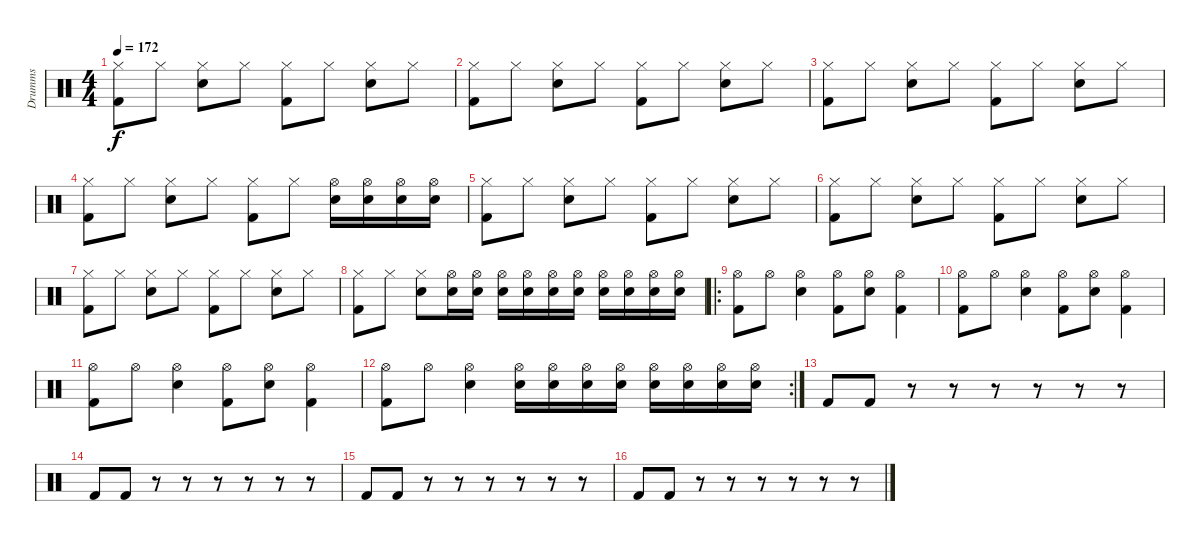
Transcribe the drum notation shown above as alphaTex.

\track ("Drumms" "Drumms") {instrument percussion}
\staff
\articulation defaults
\ts (4 4)
\tempo 172
\clef neutral
\ks c
("Hi-Hat (closed)" "Kick (hit) 2").8{dy f} "Hi-Hat (closed)".8 ("Hi-Hat (closed)" "Electric Snare (hit)").8 "Hi-Hat (closed)".8 ("Hi-Hat (closed)" "Kick (hit) 2").8 "Hi-Hat (closed)".8 ("Hi-Hat (closed)" "Electric Snare (hit)").8 "Hi-Hat (closed)".8 |
("Hi-Hat (closed)" "Kick (hit) 2").8 "Hi-Hat (closed)".8 ("Hi-Hat (closed)" "Electric Snare (hit)").8 "Hi-Hat (closed)".8 ("Hi-Hat (closed)" "Kick (hit) 2").8 "Hi-Hat (closed)".8 ("Hi-Hat (closed)" "Electric Snare (hit)").8 "Hi-Hat (closed)".8 |
("Hi-Hat (closed)" "Kick (hit) 2").8 "Hi-Hat (closed)".8 ("Hi-Hat (closed)" "Electric Snare (hit)").8 "Hi-Hat (closed)".8 ("Hi-Hat (closed)" "Kick (hit) 2").8 "Hi-Hat (closed)".8 ("Hi-Hat (closed)" "Electric Snare (hit)").8 "Hi-Hat (closed)".8 |
("Hi-Hat (closed)" "Kick (hit) 2").8 "Hi-Hat (closed)".8 ("Hi-Hat (closed)" "Electric Snare (hit)").8 "Hi-Hat (closed)".8 ("Hi-Hat (closed)" "Kick (hit) 2").8 "Hi-Hat (closed)".8 ("Snare (hit) 2" "Hi-Hat (open)").16 ("Electric Snare (hit)" "Hi-Hat (open)").16 ("Snare (hit) 2" "Hi-Hat (open)").16 ("Electric Snare (hit)" "Hi-Hat (open)").16 |
("Hi-Hat (closed)" "Kick (hit) 2").8 "Hi-Hat (closed)".8 ("Hi-Hat (closed)" "Electric Snare (hit)").8 "Hi-Hat (closed)".8 ("Hi-Hat (closed)" "Kick (hit) 2").8 "Hi-Hat (closed)".8 ("Hi-Hat (closed)" "Electric Snare (hit)").8 "Hi-Hat (closed)".8 |
("Hi-Hat (closed)" "Kick (hit) 2").8 "Hi-Hat (closed)".8 ("Hi-Hat (closed)" "Electric Snare (hit)").8 "Hi-Hat (closed)".8 ("Hi-Hat (closed)" "Kick (hit) 2").8 "Hi-Hat (closed)".8 ("Hi-Hat (closed)" "Electric Snare (hit)").8 "Hi-Hat (closed)".8 |
("Hi-Hat (closed)" "Kick (hit) 2").8 "Hi-Hat (closed)".8 ("Hi-Hat (closed)" "Electric Snare (hit)").8 "Hi-Hat (closed)".8 ("Hi-Hat (closed)" "Kick (hit) 2").8 "Hi-Hat (closed)".8 ("Hi-Hat (closed)" "Electric Snare (hit)").8 "Hi-Hat (closed)".8 |
("Hi-Hat (closed)" "Kick (hit) 2").8 "Hi-Hat (closed)".8 ("Hi-Hat (closed)" "Electric Snare (hit)").8 ("Snare (hit) 2" "Hi-Hat (open)").16 ("Electric Snare (hit)" "Hi-Hat (open)").16 ("Snare (hit) 2" "Hi-Hat (open)").16 ("Electric Snare (hit)" "Hi-Hat (open)").16 ("Snare (hit) 2" "Hi-Hat (open)").16 ("Electric Snare (hit)" "Hi-Hat (open)").16 ("Snare (hit) 2" "Hi-Hat (open)").16 ("Electric Snare (hit)" "Hi-Hat (open)").16 ("Snare (hit) 2" "Hi-Hat (open)").16 ("Electric Snare (hit)" "Hi-Hat (open)").16 |
\ro
("Kick (hit) 2" "Hi-Hat (open)").8 "Hi-Hat (open)".8 ("Snare (hit) 2" "Hi-Hat (open)").4 ("Kick (hit) 2" "Hi-Hat (open)").8 ("Snare (hit) 2" "Hi-Hat (open)").8 ("Kick (hit) 2" "Hi-Hat (open)").4 |
("Kick (hit) 2" "Hi-Hat (open)").8 "Hi-Hat (open)".8 ("Snare (hit) 2" "Hi-Hat (open)").4 ("Kick (hit) 2" "Hi-Hat (open)").8 ("Snare (hit) 2" "Hi-Hat (open)").8 ("Kick (hit) 2" "Hi-Hat (open)").4 |
("Kick (hit) 2" "Hi-Hat (open)").8 "Hi-Hat (open)".8 ("Snare (hit) 2" "Hi-Hat (open)").4 ("Kick (hit) 2" "Hi-Hat (open)").8 ("Snare (hit) 2" "Hi-Hat (open)").8 ("Kick (hit) 2" "Hi-Hat (open)").4 |
\rc 2
("Kick (hit) 2" "Hi-Hat (open)").8 "Hi-Hat (open)".8 ("Snare (hit) 2" "Hi-Hat (open)").4 ("Snare (hit) 2" "Hi-Hat (open)").16 ("Electric Snare (hit)" "Hi-Hat (open)").16 ("Snare (hit) 2" "Hi-Hat (open)").16 ("Electric Snare (hit)" "Hi-Hat (open)").16 ("Snare (hit) 2" "Hi-Hat (open)").16 ("Electric Snare (hit)" "Hi-Hat (open)").16 ("Snare (hit) 2" "Hi-Hat (open)").16 ("Electric Snare (hit)" "Hi-Hat (open)").16 |
"Kick (hit) 2".8 "Kick (hit) 2".8 r.8 r.8 r.8 r.8 r.8 r.8 |
"Kick (hit) 2".8 "Kick (hit) 2".8 r.8 r.8 r.8 r.8 r.8 r.8 |
"Kick (hit) 2".8 "Kick (hit) 2".8 r.8 r.8 r.8 r.8 r.8 r.8 |
"Kick (hit) 2".8 "Kick (hit) 2".8 r.8 r.8 r.8 r.8 r.8 r.8
